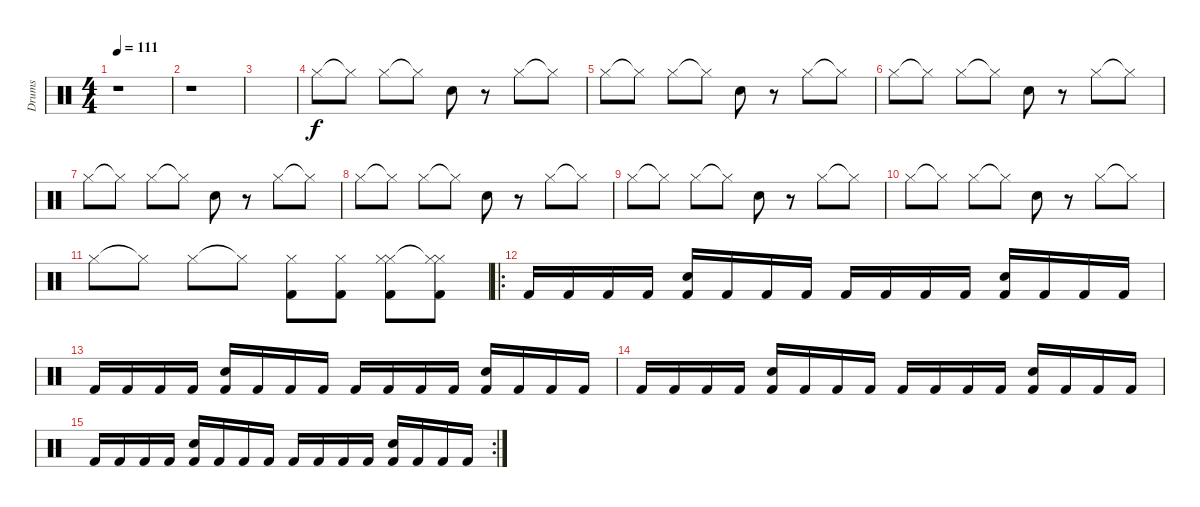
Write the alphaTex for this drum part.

\track ("Drums" "Drums") {instrument percussion}
\staff {score}
\articulation defaults
\ts (4 4)
\tempo 111
\clef neutral
\ks c
r.1{dy f} |
r.1 |
|
"Hi-Hat (closed)".8 "Hi-Hat (closed)"{t}.8 "Hi-Hat (closed)".8 "Hi-Hat (closed)"{t}.8 "Snare (hit) 2".8 r.8 "Hi-Hat (closed)".8 "Hi-Hat (closed)"{t}.8 |
"Hi-Hat (closed)".8 "Hi-Hat (closed)"{t}.8 "Hi-Hat (closed)".8 "Hi-Hat (closed)"{t}.8 "Snare (hit) 2".8 r.8 "Hi-Hat (closed)".8 "Hi-Hat (closed)"{t}.8 |
"Hi-Hat (closed)".8 "Hi-Hat (closed)"{t}.8 "Hi-Hat (closed)".8 "Hi-Hat (closed)"{t}.8 "Snare (hit) 2".8 r.8 "Hi-Hat (closed)".8 "Hi-Hat (closed)"{t}.8 |
"Hi-Hat (closed)".8 "Hi-Hat (closed)"{t}.8 "Hi-Hat (closed)".8 "Hi-Hat (closed)"{t}.8 "Snare (hit) 2".8 r.8 "Hi-Hat (closed)".8 "Hi-Hat (closed)"{t}.8 |
"Hi-Hat (closed)".8 "Hi-Hat (closed)"{t}.8 "Hi-Hat (closed)".8 "Hi-Hat (closed)"{t}.8 "Snare (hit) 2".8 r.8 "Hi-Hat (closed)".8 "Hi-Hat (closed)"{t}.8 |
"Hi-Hat (closed)".8 "Hi-Hat (closed)"{t}.8 "Hi-Hat (closed)".8 "Hi-Hat (closed)"{t}.8 "Snare (hit) 2".8 r.8 "Hi-Hat (closed)".8 "Hi-Hat (closed)"{t}.8 |
"Hi-Hat (closed)".8 "Hi-Hat (closed)"{t}.8 "Hi-Hat (closed)".8 "Hi-Hat (closed)"{t}.8 "Snare (hit) 2".8 r.8 "Hi-Hat (closed)".8 "Hi-Hat (closed)"{t}.8 |
"Hi-Hat (closed)".8 "Hi-Hat (closed)"{t}.8 "Hi-Hat (closed)".8 "Hi-Hat (closed)"{t}.8 ("Hi-Hat (closed)" "Kick (hit) 2").8 ("Hi-Hat (closed)" "Kick (hit) 2").8 ("Hi-Hat (closed)" "Hi-Hat (closed)" "Kick (hit) 2").8 ("Hi-Hat (closed)"{t} "Hi-Hat (closed)" "Kick (hit) 2").8 |
\ro "Kick (hit) 2".16 "Kick (hit) 2".16 "Kick (hit) 2".16 "Kick (hit) 2".16
("Snare (hit) 2" "Kick (hit) 2").16 "Kick (hit) 2".16 "Kick (hit) 2".16 "Kick (hit) 2".16 "Kick (hit) 2".16 "Kick (hit) 2".16 "Kick (hit) 2".16 "Kick (hit) 2".16 ("Snare (hit) 2" "Kick (hit) 2").16 "Kick (hit) 2".16 "Kick (hit) 2".16 "Kick (hit) 2".16 |
"Kick (hit) 2".16 "Kick (hit) 2".16 "Kick (hit) 2".16 "Kick (hit) 2".16 ("Snare (hit) 2" "Kick (hit) 2").16 "Kick (hit) 2".16 "Kick (hit) 2".16 "Kick (hit) 2".16 "Kick (hit) 2".16 "Kick (hit) 2".16 "Kick (hit) 2".16 "Kick (hit) 2".16 ("Snare (hit) 2" "Kick (hit) 2").16 "Kick (hit) 2".16 "Kick (hit) 2".16 "Kick (hit) 2".16 |
"Kick (hit) 2".16 "Kick (hit) 2".16 "Kick (hit) 2".16 "Kick (hit) 2".16 ("Snare (hit) 2" "Kick (hit) 2").16 "Kick (hit) 2".16 "Kick (hit) 2".16 "Kick (hit) 2".16 "Kick (hit) 2".16 "Kick (hit) 2".16 "Kick (hit) 2".16 "Kick (hit) 2".16 ("Snare (hit) 2" "Kick (hit) 2").16 "Kick (hit) 2".16 "Kick (hit) 2".16 "Kick (hit) 2".16 |
\rc 2 "Kick (hit) 2".16 "Kick (hit) 2".16 "Kick (hit) 2".16 "Kick (hit) 2".16
("Snare (hit) 2" "Kick (hit) 2").16 "Kick (hit) 2".16 "Kick (hit) 2".16 "Kick (hit) 2".16 "Kick (hit) 2".16 "Kick (hit) 2".16 "Kick (hit) 2".16 "Kick (hit) 2".16 ("Snare (hit) 2" "Kick (hit) 2").16 "Kick (hit) 2".16 "Kick (hit) 2".16 "Kick (hit) 2".16
